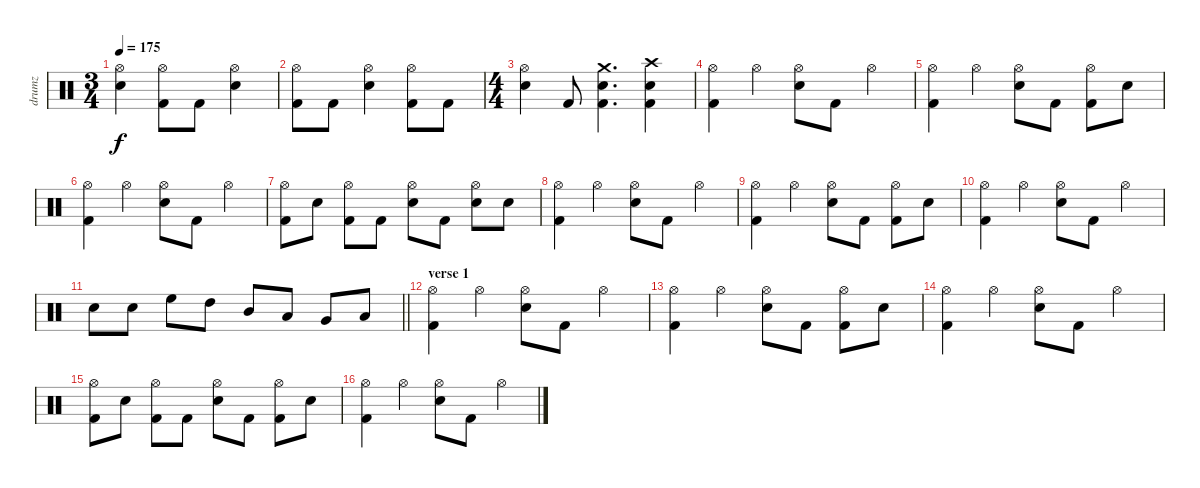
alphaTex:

\track ("drumz" "drumz") {instrument percussion}
\staff {score}
\articulation defaults
\ts (3 4)
\tempo 175
\clef neutral
\ks c
("Hi-Hat (open)" "Electric Snare (hit)").4{dy f} ("Hi-Hat (open)" "Kick (hit) 2").8 "Kick (hit) 2".8 ("Hi-Hat (open)" "Electric Snare (hit)").4 |
("Hi-Hat (open)" "Kick (hit) 2").8 "Kick (hit) 2".8 ("Hi-Hat (open)" "Electric Snare (hit)").4 ("Hi-Hat (open)" "Kick (hit) 2").8 "Kick (hit) 2".8 |
\ts (4 4)
("Hi-Hat (open)" "Electric Snare (hit)").4 "Kick (hit) 2".8 ("Crash medium (hit)" "Electric Snare (hit)" "Kick (hit) 2").4{d} ("Crash high (hit)" "Electric Snare (hit)" "Kick (hit) 2").4 |
("Hi-Hat (open)" "Kick (hit) 2").4 "Hi-Hat (open)".4 ("Hi-Hat (open)" "Electric Snare (hit)").8 "Kick (hit) 2".8 "Hi-Hat (open)".4 |
("Hi-Hat (open)" "Kick (hit) 2").4 "Hi-Hat (open)".4 ("Hi-Hat (open)" "Electric Snare (hit)").8 "Kick (hit) 2".8 ("Hi-Hat (open)" "Kick (hit) 2").8 "Electric Snare (hit)".8 |
("Hi-Hat (open)" "Kick (hit) 2").4 "Hi-Hat (open)".4 ("Hi-Hat (open)" "Electric Snare (hit)").8 "Kick (hit) 2".8 "Hi-Hat (open)".4 |
("Hi-Hat (open)" "Kick (hit) 2").8 "Electric Snare (hit)".8 ("Hi-Hat (open)" "Kick (hit) 2").8 "Kick (hit) 2".8 ("Hi-Hat (open)" "Electric Snare (hit)").8 "Kick (hit) 2".8 ("Hi-Hat (open)" "Electric Snare (hit)").8 "Electric Snare (hit)".8 |
("Hi-Hat (open)" "Kick (hit) 2").4 "Hi-Hat (open)".4 ("Hi-Hat (open)" "Electric Snare (hit)").8 "Kick (hit) 2".8 "Hi-Hat (open)".4 |
("Hi-Hat (open)" "Kick (hit) 2").4 "Hi-Hat (open)".4 ("Hi-Hat (open)" "Electric Snare (hit)").8 "Kick (hit) 2".8 ("Hi-Hat (open)" "Kick (hit) 2").8 "Electric Snare (hit)".8 |
("Hi-Hat (open)" "Kick (hit) 2").4 "Hi-Hat (open)".4 ("Hi-Hat (open)" "Electric Snare (hit)").8 "Kick (hit) 2".8 "Hi-Hat (open)".4 |
\barLineRight lightlight "Electric Snare (hit)".8 "Electric Snare (hit)".8 "High Floor Tom (hit)".8 "High Tom (hit)".8 "Mid Tom (hit)".8 "Low Tom (hit)".8 "Very Low Tom (hit)".8 "Low Floor Tom (hit)".8
|
\section ("" "verse 1")
("Hi-Hat (open)" "Kick (hit) 2").4 "Hi-Hat (open)".4 ("Hi-Hat (open)" "Electric Snare (hit)").8 "Kick (hit) 2".8 "Hi-Hat (open)".4 |
("Hi-Hat (open)" "Kick (hit) 2").4 "Hi-Hat (open)".4 ("Hi-Hat (open)" "Electric Snare (hit)").8 "Kick (hit) 2".8 ("Hi-Hat (open)" "Kick (hit) 2").8 "Electric Snare (hit)".8 |
("Hi-Hat (open)" "Kick (hit) 2").4 "Hi-Hat (open)".4 ("Hi-Hat (open)" "Electric Snare (hit)").8 "Kick (hit) 2".8 "Hi-Hat (open)".4 |
("Hi-Hat (open)" "Kick (hit) 2").8 "Electric Snare (hit)".8 ("Hi-Hat (open)" "Kick (hit) 2").8 "Kick (hit) 2".8 ("Hi-Hat (open)" "Electric Snare (hit)").8 "Kick (hit) 2".8 ("Hi-Hat (open)" "Kick (hit) 2").8 "Electric Snare (hit)".8 |
("Hi-Hat (open)" "Kick (hit) 2").4 "Hi-Hat (open)".4 ("Hi-Hat (open)" "Electric Snare (hit)").8 "Kick (hit) 2".8 "Hi-Hat (open)".4
